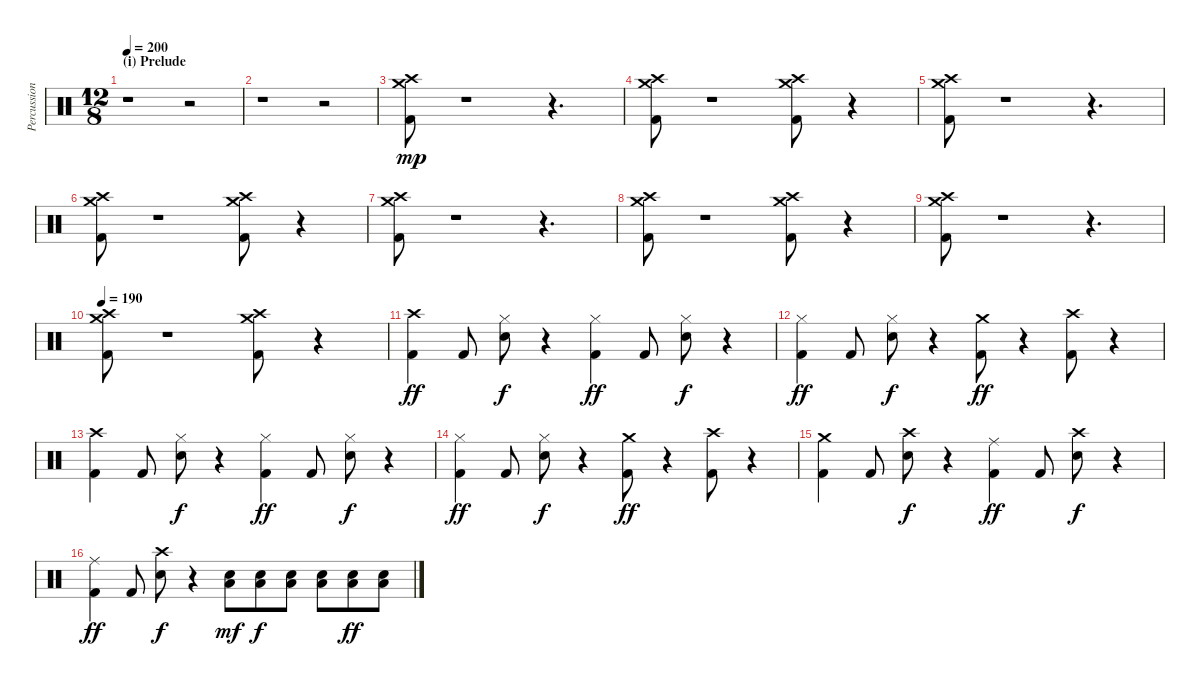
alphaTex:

\track ("Percussion" "Percussion") {instrument percussion}
\staff {score}
\articulation defaults
\ts (12 8)
\section ("" "(i) Prelude")
\tempo 200
\clef neutral
\ks c
r.1{dy mp} r.2 |
r.1 r.2 |
("Kick (hit) 2" "Crash high (hit)" "Crash medium (hit)").8 r.1 r.4{d} |
("Kick (hit) 2" "Crash high (hit)" "Crash medium (hit)").8 r.1 ("Kick (hit) 2" "Crash high (hit)" "Crash medium (hit)").8 r.4 |
("Kick (hit) 2" "Crash high (hit)" "Crash medium (hit)").8 r.1 r.4{d} |
("Kick (hit) 2" "Crash high (hit)" "Crash medium (hit)").8 r.1 ("Kick (hit) 2" "Crash high (hit)" "Crash medium (hit)").8 r.4 |
("Kick (hit) 2" "Crash high (hit)" "Crash medium (hit)").8 r.1 r.4{d} |
("Kick (hit) 2" "Crash high (hit)" "Crash medium (hit)").8 r.1 ("Kick (hit) 2" "Crash high (hit)" "Crash medium (hit)").8 r.4 |
("Kick (hit) 2" "Crash high (hit)" "Crash medium (hit)").8 r.1 r.4{d} |
\tempo 190
("Kick (hit) 2" "Crash high (hit)" "Crash medium (hit)").8 r.1 ("Kick (hit) 2" "Crash high (hit)" "Crash medium (hit)").8 r.4 |
("Kick (hit) 2" "Crash high (hit)").4{dy ff} "Kick (hit) 2".8 ("Snare (hit) 2" "Hi-Hat (closed)").8{dy f} r.4 ("Kick (hit) 2" "Hi-Hat (closed)").4{dy ff} "Kick (hit) 2".8 ("Snare (hit) 2" "Hi-Hat (closed)").8{dy f} r.4 |
("Kick (hit) 2" "Hi-Hat (closed)").4{dy ff} "Kick (hit) 2".8 ("Snare (hit) 2" "Hi-Hat (closed)").8{dy f} r.4 ("Kick (hit) 2" "Crash medium (hit)").8{dy ff} r.4 ("Kick (hit) 2" "Crash high (hit)").8 r.4 |
("Kick (hit) 2" "Crash high (hit)").4 "Kick (hit) 2".8 ("Snare (hit) 2" "Hi-Hat (closed)").8{dy f} r.4 ("Kick (hit) 2" "Hi-Hat (closed)").4{dy ff} "Kick (hit) 2".8 ("Snare (hit) 2" "Hi-Hat (closed)").8{dy f} r.4 |
("Kick (hit) 2" "Hi-Hat (closed)").4{dy ff} "Kick (hit) 2".8 ("Snare (hit) 2" "Hi-Hat (closed)").8{dy f} r.4 ("Kick (hit) 2" "Crash medium (hit)").8{dy ff} r.4 ("Kick (hit) 2" "Crash high (hit)").8 r.4 |
("Kick (hit) 2" "Crash medium (hit)").4 "Kick (hit) 2".8 ("Snare (hit) 2" "Crash high (hit)").8{dy f} r.4 ("Kick (hit) 2" "Ride (middle)").4{dy ff} "Kick (hit) 2".8 ("Snare (hit) 2" "Crash high (hit)").8{dy f} r.4 |
("Kick (hit) 2" "Ride (middle)").4{dy ff} "Kick (hit) 2".8 ("Snare (hit) 2" "Crash high (hit)").8{dy f} r.4 ("Snare (hit) 2" "Low Tom (hit)").8{dy mf} ("Snare (hit) 2" "Low Tom (hit)").8{dy f} ("Snare (hit) 2" "Low Tom (hit)").8 ("Snare (hit) 2" "Low Tom (hit)").8 ("Snare (hit) 2" "Low Tom (hit)").8{dy ff} ("Snare (hit) 2" "Low Tom (hit)").8
